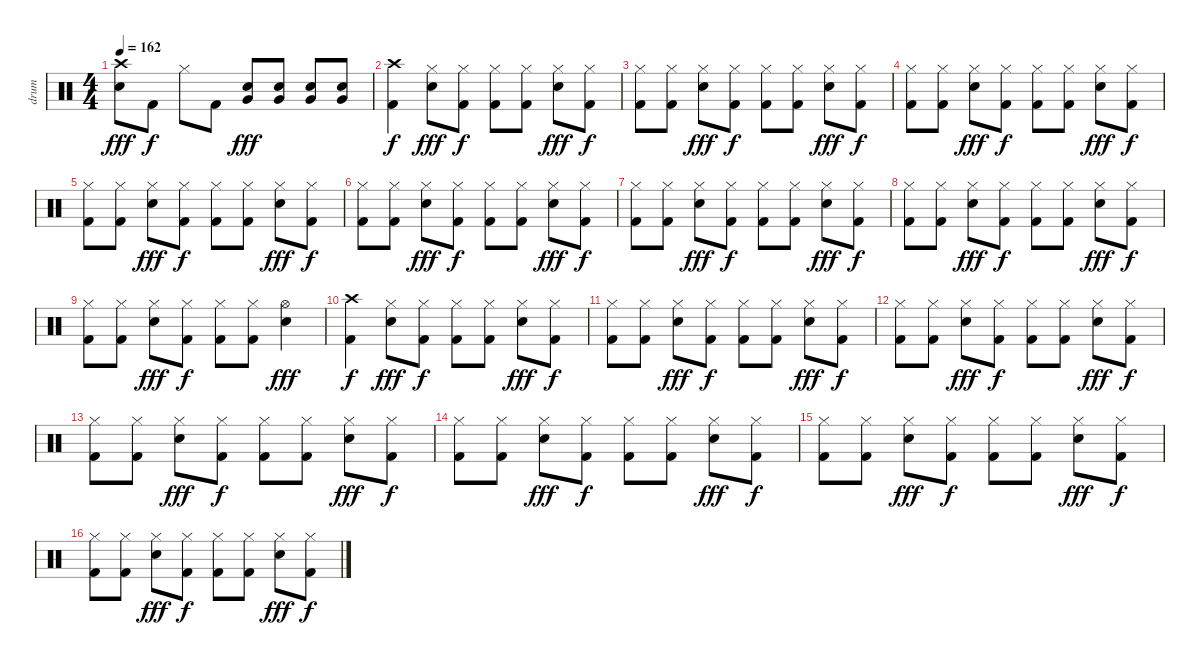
\track ("drum" "drum") {instrument percussion}
\staff {score}
\articulation defaults
\ts (4 4)
\tempo 162
\clef neutral
\ks c
("Crash high (hit)" "Electric Snare (hit)").8{dy fff} "Kick (hit) 2".8{dy f} "Hi-Hat (closed)".8 "Kick (hit) 2".8 ("Electric Snare (hit)" "Very Low Tom (hit)").8{dy fff} ("Electric Snare (hit)" "Very Low Tom (hit)").8 ("Electric Snare (hit)" "Very Low Tom (hit)").8 ("Electric Snare (hit)" "Very Low Tom (hit)").8 |
("Crash high (hit)" "Kick (hit) 2").4{dy f} ("Hi-Hat (closed)" "Electric Snare (hit)").8{dy fff} ("Hi-Hat (closed)" "Kick (hit) 2").8{dy f} ("Hi-Hat (closed)" "Kick (hit) 2").8 ("Hi-Hat (closed)" "Kick (hit) 2").8 ("Hi-Hat (closed)" "Electric Snare (hit)").8{dy fff} ("Hi-Hat (closed)" "Kick (hit) 2").8{dy f} |
("Hi-Hat (closed)" "Kick (hit) 2").8 ("Hi-Hat (closed)" "Kick (hit) 2").8 ("Hi-Hat (closed)" "Electric Snare (hit)").8{dy fff} ("Hi-Hat (closed)" "Kick (hit) 2").8{dy f} ("Hi-Hat (closed)" "Kick (hit) 2").8 ("Hi-Hat (closed)" "Kick (hit) 2").8 ("Hi-Hat (closed)" "Electric Snare (hit)").8{dy fff} ("Hi-Hat (closed)" "Kick (hit) 2").8{dy f} |
("Hi-Hat (closed)" "Kick (hit) 2").8 ("Hi-Hat (closed)" "Kick (hit) 2").8 ("Hi-Hat (closed)" "Electric Snare (hit)").8{dy fff} ("Hi-Hat (closed)" "Kick (hit) 2").8{dy f} ("Hi-Hat (closed)" "Kick (hit) 2").8 ("Hi-Hat (closed)" "Kick (hit) 2").8 ("Hi-Hat (closed)" "Electric Snare (hit)").8{dy fff} ("Hi-Hat (closed)" "Kick (hit) 2").8{dy f} |
("Hi-Hat (closed)" "Kick (hit) 2").8 ("Hi-Hat (closed)" "Kick (hit) 2").8 ("Hi-Hat (closed)" "Electric Snare (hit)").8{dy fff} ("Hi-Hat (closed)" "Kick (hit) 2").8{dy f} ("Hi-Hat (closed)" "Kick (hit) 2").8 ("Hi-Hat (closed)" "Kick (hit) 2").8 ("Hi-Hat (closed)" "Electric Snare (hit)").8{dy fff} ("Hi-Hat (closed)" "Kick (hit) 2").8{dy f} |
("Hi-Hat (closed)" "Kick (hit) 2").8 ("Hi-Hat (closed)" "Kick (hit) 2").8 ("Hi-Hat (closed)" "Electric Snare (hit)").8{dy fff} ("Hi-Hat (closed)" "Kick (hit) 2").8{dy f} ("Hi-Hat (closed)" "Kick (hit) 2").8 ("Hi-Hat (closed)" "Kick (hit) 2").8 ("Hi-Hat (closed)" "Electric Snare (hit)").8{dy fff} ("Hi-Hat (closed)" "Kick (hit) 2").8{dy f} |
("Hi-Hat (closed)" "Kick (hit) 2").8 ("Hi-Hat (closed)" "Kick (hit) 2").8 ("Hi-Hat (closed)" "Electric Snare (hit)").8{dy fff} ("Hi-Hat (closed)" "Kick (hit) 2").8{dy f} ("Hi-Hat (closed)" "Kick (hit) 2").8 ("Hi-Hat (closed)" "Kick (hit) 2").8 ("Hi-Hat (closed)" "Electric Snare (hit)").8{dy fff} ("Hi-Hat (closed)" "Kick (hit) 2").8{dy f} |
("Hi-Hat (closed)" "Kick (hit) 2").8 ("Hi-Hat (closed)" "Kick (hit) 2").8 ("Hi-Hat (closed)" "Electric Snare (hit)").8{dy fff} ("Hi-Hat (closed)" "Kick (hit) 2").8{dy f} ("Hi-Hat (closed)" "Kick (hit) 2").8 ("Hi-Hat (closed)" "Kick (hit) 2").8 ("Hi-Hat (closed)" "Electric Snare (hit)").8{dy fff} ("Hi-Hat (closed)" "Kick (hit) 2").8{dy f} |
("Hi-Hat (closed)" "Kick (hit) 2").8 ("Hi-Hat (closed)" "Kick (hit) 2").8 ("Hi-Hat (closed)" "Electric Snare (hit)").8{dy fff} ("Hi-Hat (closed)" "Kick (hit) 2").8{dy f} ("Hi-Hat (closed)" "Kick (hit) 2").8 ("Hi-Hat (closed)" "Kick (hit) 2").8 ("Hi-Hat (open)" "Electric Snare (hit)").4{dy fff} |
("Crash high (hit)" "Kick (hit) 2").4{dy f} ("Hi-Hat (closed)" "Electric Snare (hit)").8{dy fff} ("Hi-Hat (closed)" "Kick (hit) 2").8{dy f} ("Hi-Hat (closed)" "Kick (hit) 2").8 ("Hi-Hat (closed)" "Kick (hit) 2").8 ("Hi-Hat (closed)" "Electric Snare (hit)").8{dy fff} ("Hi-Hat (closed)" "Kick (hit) 2").8{dy f} |
("Hi-Hat (closed)" "Kick (hit) 2").8 ("Hi-Hat (closed)" "Kick (hit) 2").8 ("Hi-Hat (closed)" "Electric Snare (hit)").8{dy fff} ("Hi-Hat (closed)" "Kick (hit) 2").8{dy f} ("Hi-Hat (closed)" "Kick (hit) 2").8 ("Hi-Hat (closed)" "Kick (hit) 2").8 ("Hi-Hat (closed)" "Electric Snare (hit)").8{dy fff} ("Hi-Hat (closed)" "Kick (hit) 2").8{dy f} |
("Hi-Hat (closed)" "Kick (hit) 2").8 ("Hi-Hat (closed)" "Kick (hit) 2").8 ("Hi-Hat (closed)" "Electric Snare (hit)").8{dy fff} ("Hi-Hat (closed)" "Kick (hit) 2").8{dy f} ("Hi-Hat (closed)" "Kick (hit) 2").8 ("Hi-Hat (closed)" "Kick (hit) 2").8 ("Hi-Hat (closed)" "Electric Snare (hit)").8{dy fff} ("Hi-Hat (closed)" "Kick (hit) 2").8{dy f} |
("Hi-Hat (closed)" "Kick (hit) 2").8 ("Hi-Hat (closed)" "Kick (hit) 2").8 ("Hi-Hat (closed)" "Electric Snare (hit)").8{dy fff} ("Hi-Hat (closed)" "Kick (hit) 2").8{dy f} ("Hi-Hat (closed)" "Kick (hit) 2").8 ("Hi-Hat (closed)" "Kick (hit) 2").8 ("Hi-Hat (closed)" "Electric Snare (hit)").8{dy fff} ("Hi-Hat (closed)" "Kick (hit) 2").8{dy f} |
("Hi-Hat (closed)" "Kick (hit) 2").8 ("Hi-Hat (closed)" "Kick (hit) 2").8 ("Hi-Hat (closed)" "Electric Snare (hit)").8{dy fff} ("Hi-Hat (closed)" "Kick (hit) 2").8{dy f} ("Hi-Hat (closed)" "Kick (hit) 2").8 ("Hi-Hat (closed)" "Kick (hit) 2").8 ("Hi-Hat (closed)" "Electric Snare (hit)").8{dy fff} ("Hi-Hat (closed)" "Kick (hit) 2").8{dy f} |
("Hi-Hat (closed)" "Kick (hit) 2").8 ("Hi-Hat (closed)" "Kick (hit) 2").8 ("Hi-Hat (closed)" "Electric Snare (hit)").8{dy fff} ("Hi-Hat (closed)" "Kick (hit) 2").8{dy f} ("Hi-Hat (closed)" "Kick (hit) 2").8 ("Hi-Hat (closed)" "Kick (hit) 2").8 ("Hi-Hat (closed)" "Electric Snare (hit)").8{dy fff} ("Hi-Hat (closed)" "Kick (hit) 2").8{dy f} |
("Hi-Hat (closed)" "Kick (hit) 2").8 ("Hi-Hat (closed)" "Kick (hit) 2").8 ("Hi-Hat (closed)" "Electric Snare (hit)").8{dy fff} ("Hi-Hat (closed)" "Kick (hit) 2").8{dy f} ("Hi-Hat (closed)" "Kick (hit) 2").8 ("Hi-Hat (closed)" "Kick (hit) 2").8 ("Hi-Hat (closed)" "Electric Snare (hit)").8{dy fff} ("Hi-Hat (closed)" "Kick (hit) 2").8{dy f}
